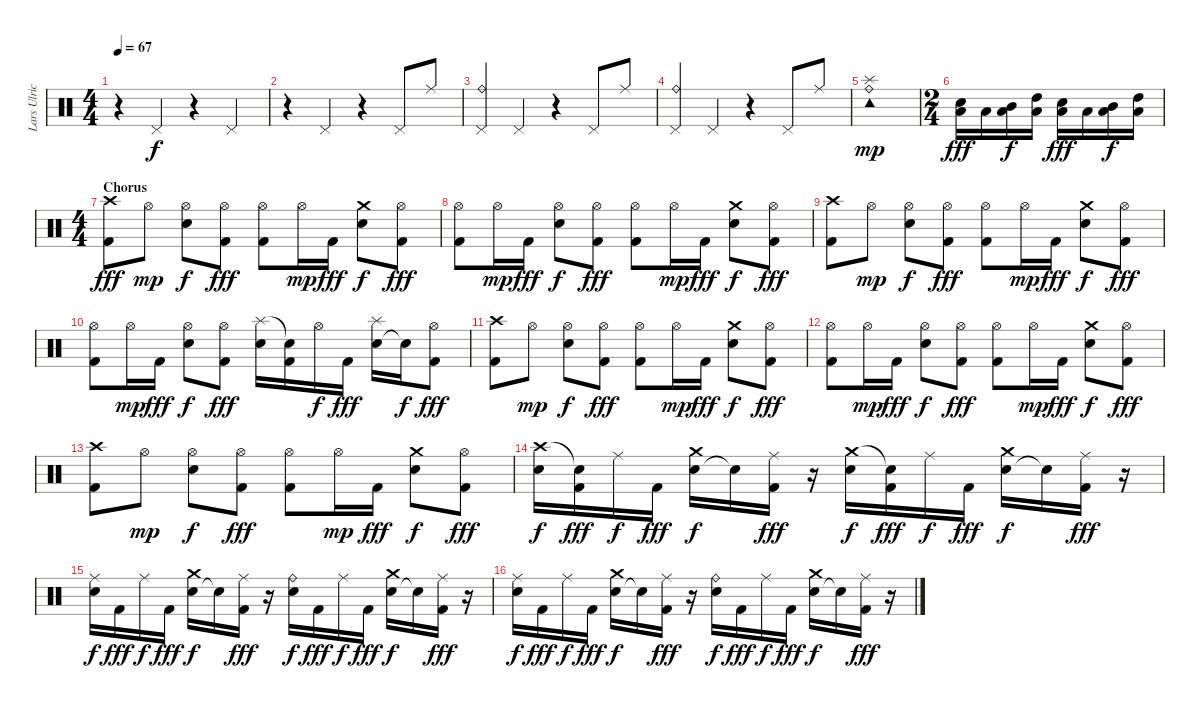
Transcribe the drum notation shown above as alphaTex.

\track ("Lars Ulrich (Drums)" "Lars Ulric") {instrument percussion}
\staff {score}
\articulation defaults
\ts (4 4)
\tempo 67
\clef neutral
\ks c
r.4{dy f} "Pedal Hi-Hat (hit)".4 r.4 "Pedal Hi-Hat (hit)".4 |
r.4 "Pedal Hi-Hat (hit)".4 r.4 "Pedal Hi-Hat (hit)".8 "Ride (middle)".8 |
("Pedal Hi-Hat (hit)" "Ride (bell)").4 "Pedal Hi-Hat (hit)".4 r.4 "Pedal Hi-Hat (hit)".8 "Ride (middle)".8 |
("Pedal Hi-Hat (hit)" "Ride (bell)").4 "Pedal Hi-Hat (hit)".4 r.4 "Pedal Hi-Hat (hit)".8 "Ride (middle)".8 |
("Ride (bell)" "Tambourine (hit)" "Splash (hit)").1{dy mp} |
\ts (2 4)
("Snare (hit) 2" "Low Tom (hit)").16{dy fff} "Low Tom (hit)".16 ("Mid Tom (hit)" "Low Tom (hit)").16{dy f} ("High Tom (hit)" "Low Tom (hit)").16 ("Snare (hit) 2" "Low Tom (hit)").16{dy fff} "Low Tom (hit)".16 ("Mid Tom (hit)" "Low Tom (hit)").16{dy f} ("High Tom (hit)" "Low Tom (hit)").16 |
\ts (4 4)
\section ("" "Chorus")
("Kick (hit) 2" "Crash high (hit)").8{dy fff} "Hi-Hat (open)".8{dy mp} ("Hi-Hat (open)" "Snare (hit) 2").8{dy f} ("Hi-Hat (open)" "Kick (hit) 2").8{dy fff} ("Hi-Hat (open)" "Kick (hit) 2").8 "Hi-Hat (open)".16{dy mp} "Kick (hit) 2".16{dy fff} ("Snare (hit) 2" "Crash medium (hit)").8{dy f} ("Hi-Hat (open)" "Kick (hit) 2").8{dy fff} |
("Hi-Hat (open)" "Kick (hit) 2").8 "Hi-Hat (open)".16{dy mp} "Kick (hit) 2".16{dy fff} ("Hi-Hat (open)" "Snare (hit) 2").8{dy f} ("Hi-Hat (open)" "Kick (hit) 2").8{dy fff} ("Hi-Hat (open)" "Kick (hit) 2").8 "Hi-Hat (open)".16{dy mp} "Kick (hit) 2".16{dy fff} ("Snare (hit) 2" "Crash medium (hit)").8{dy f} ("Hi-Hat (open)" "Kick (hit) 2").8{dy fff} |
("Kick (hit) 2" "Crash high (hit)").8 "Hi-Hat (open)".8{dy mp} ("Hi-Hat (open)" "Snare (hit) 2").8{dy f} ("Hi-Hat (open)" "Kick (hit) 2").8{dy fff} ("Hi-Hat (open)" "Kick (hit) 2").8 "Hi-Hat (open)".16{dy mp} "Kick (hit) 2".16{dy fff} ("Snare (hit) 2" "Crash medium (hit)").8{dy f} ("Hi-Hat (open)" "Kick (hit) 2").8{dy fff} |
("Hi-Hat (open)" "Kick (hit) 2").8 "Hi-Hat (open)".16{dy mp} "Kick (hit) 2".16{dy fff} ("Hi-Hat (open)" "Snare (hit) 2").8{dy f} ("Hi-Hat (open)" "Kick (hit) 2").8{dy fff} ("Snare (hit) 2" "Splash (hit)").16 ("Kick (hit) 2" "Snare (hit)"{t}).16 "Hi-Hat (open)".16{dy f} "Kick (hit) 2".16{dy fff} ("Snare (hit) 2" "Splash (hit)").16 "Snare (hit)"{t}.16{dy f} ("Hi-Hat (open)" "Kick (hit) 2").8{dy fff} |
("Kick (hit) 2" "Crash high (hit)").8 "Hi-Hat (open)".8{dy mp} ("Hi-Hat (open)" "Snare (hit) 2").8{dy f} ("Hi-Hat (open)" "Kick (hit) 2").8{dy fff} ("Hi-Hat (open)" "Kick (hit) 2").8 "Hi-Hat (open)".16{dy mp} "Kick (hit) 2".16{dy fff} ("Snare (hit) 2" "Crash medium (hit)").8{dy f} ("Hi-Hat (open)" "Kick (hit) 2").8{dy fff} |
("Hi-Hat (open)" "Kick (hit) 2").8 "Hi-Hat (open)".16{dy mp} "Kick (hit) 2".16{dy fff} ("Hi-Hat (open)" "Snare (hit) 2").8{dy f} ("Hi-Hat (open)" "Kick (hit) 2").8{dy fff} ("Hi-Hat (open)" "Kick (hit) 2").8 "Hi-Hat (open)".16{dy mp} "Kick (hit) 2".16{dy fff} ("Snare (hit) 2" "Crash medium (hit)").8{dy f} ("Hi-Hat (open)" "Kick (hit) 2").8{dy fff} |
("Kick (hit) 2" "Crash high (hit)").8 "Hi-Hat (open)".8{dy mp} ("Hi-Hat (open)" "Snare (hit) 2").8{dy f} ("Hi-Hat (open)" "Kick (hit) 2").8{dy fff} ("Hi-Hat (open)" "Kick (hit) 2").8 "Hi-Hat (open)".16{dy mp} "Kick (hit) 2".16{dy fff} ("Snare (hit) 2" "Crash medium (hit)").8{dy f} ("Hi-Hat (open)" "Kick (hit) 2").8{dy fff} |
("Snare (hit) 2" "Crash high (hit)").16{dy f} ("Kick (hit) 2" "Snare (hit)"{t}).16{dy fff} "Ride (middle)".16{dy f} "Kick (hit) 2".16{dy fff} ("Snare (hit) 2" "Crash medium (hit)").16{dy f} "Snare (hit)"{t}.16 ("Ride (middle)" "Kick (hit) 2").16{dy fff} r.16 ("Snare (hit) 2" "Crash medium (hit)").16{dy f} ("Kick (hit) 2" "Snare (hit)"{t}).16{dy fff} "Ride (middle)".16{dy f} "Kick (hit) 2".16{dy fff} ("Snare (hit) 2" "Crash medium (hit)").16{dy f} "Snare (hit)"{t}.16 ("Ride (middle)" "Kick (hit) 2").16{dy fff} r.16 |
("Ride (middle)" "Snare (hit) 2").16{dy f} "Kick (hit) 2".16{dy fff} "Ride (middle)".16{dy f} "Kick (hit) 2".16{dy fff} ("Snare (hit) 2" "Crash medium (hit)").16{dy f} "Snare (hit)"{t}.16 ("Ride (middle)" "Kick (hit) 2").16{dy fff} r.16 ("Ride (bell)" "Snare (hit) 2").16{dy f} "Kick (hit) 2".16{dy fff} "Ride (middle)".16{dy f} "Kick (hit) 2".16{dy fff} ("Snare (hit) 2" "Crash medium (hit)").16{dy f} "Snare (hit)"{t}.16 ("Ride (middle)" "Kick (hit) 2").16{dy fff} r.16 |
("Ride (middle)" "Snare (hit) 2").16{dy f} "Kick (hit) 2".16{dy fff} "Ride (middle)".16{dy f} "Kick (hit) 2".16{dy fff} ("Snare (hit) 2" "Crash medium (hit)").16{dy f} "Snare (hit)"{t}.16 ("Ride (middle)" "Kick (hit) 2").16{dy fff} r.16 ("Ride (bell)" "Snare (hit) 2").16{dy f} "Kick (hit) 2".16{dy fff} "Ride (middle)".16{dy f} "Kick (hit) 2".16{dy fff} ("Snare (hit) 2" "Crash medium (hit)").16{dy f} "Snare (hit)"{t}.16 ("Ride (middle)" "Kick (hit) 2").16{dy fff} r.16
